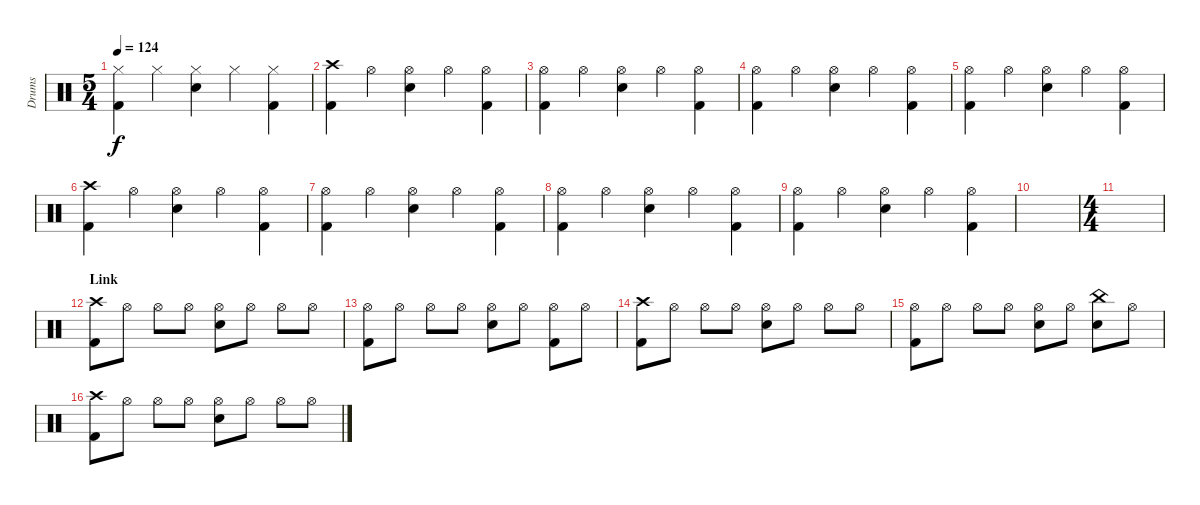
\track ("Drums" "Drums") {instrument percussion}
\staff {score}
\articulation defaults
\ts (5 4)
\tempo 124
\clef neutral
\ks c
("Hi-Hat (closed)" "Kick (hit) 2").4{dy f} "Hi-Hat (closed)".4 ("Hi-Hat (closed)" "Electric Snare (hit)").4 "Hi-Hat (closed)".4 ("Hi-Hat (closed)" "Kick (hit) 2").4 |
\section ("" "")
("Crash high (hit)" "Kick (hit) 2").4 "Hi-Hat (open)".4 ("Hi-Hat (open)" "Electric Snare (hit)").4 "Hi-Hat (open)".4 ("Hi-Hat (open)" "Kick (hit) 2").4 |
("Hi-Hat (open)" "Kick (hit) 2").4 "Hi-Hat (open)".4 ("Hi-Hat (open)" "Electric Snare (hit)").4 "Hi-Hat (open)".4 ("Hi-Hat (open)" "Kick (hit) 2").4 |
("Hi-Hat (open)" "Kick (hit) 2").4 "Hi-Hat (open)".4 ("Hi-Hat (open)" "Electric Snare (hit)").4 "Hi-Hat (open)".4 ("Hi-Hat (open)" "Kick (hit) 2").4 |
("Hi-Hat (open)" "Kick (hit) 2").4 "Hi-Hat (open)".4 ("Hi-Hat (open)" "Electric Snare (hit)").4 "Hi-Hat (open)".4 ("Hi-Hat (open)" "Kick (hit) 2").4 |
("Crash high (hit)" "Kick (hit) 2").4 "Hi-Hat (open)".4 ("Hi-Hat (open)" "Electric Snare (hit)").4 "Hi-Hat (open)".4 ("Hi-Hat (open)" "Kick (hit) 2").4 |
("Hi-Hat (open)" "Kick (hit) 2").4 "Hi-Hat (open)".4 ("Hi-Hat (open)" "Electric Snare (hit)").4 "Hi-Hat (open)".4 ("Hi-Hat (open)" "Kick (hit) 2").4 |
("Hi-Hat (open)" "Kick (hit) 2").4 "Hi-Hat (open)".4 ("Hi-Hat (open)" "Electric Snare (hit)").4 "Hi-Hat (open)".4 ("Hi-Hat (open)" "Kick (hit) 2").4 |
("Hi-Hat (open)" "Kick (hit) 2").4 "Hi-Hat (open)".4 ("Hi-Hat (open)" "Electric Snare (hit)").4 "Hi-Hat (open)".4 ("Hi-Hat (open)" "Kick (hit) 2").4 |
\section ("" "")
|
\ts (4 4)
|
\section ("" "Link")
("Crash high (hit)" "Kick (hit) 2").8 "Hi-Hat (open)".8 "Hi-Hat (open)".8 "Hi-Hat (open)".8 ("Hi-Hat (open)" "Electric Snare (hit)").8 "Hi-Hat (open)".8 "Hi-Hat (open)".8 "Hi-Hat (open)".8 |
("Hi-Hat (open)" "Kick (hit) 2").8 "Hi-Hat (open)".8 "Hi-Hat (open)".8 "Hi-Hat (open)".8 ("Hi-Hat (open)" "Electric Snare (hit)").8 "Hi-Hat (open)".8 ("Hi-Hat (open)" "Kick (hit) 2").8 "Hi-Hat (open)".8 |
("Crash high (hit)" "Kick (hit) 2").8 "Hi-Hat (open)".8 "Hi-Hat (open)".8 "Hi-Hat (open)".8 ("Hi-Hat (open)" "Electric Snare (hit)").8 "Hi-Hat (open)".8 "Hi-Hat (open)".8 "Hi-Hat (open)".8 |
("Hi-Hat (open)" "Kick (hit) 2").8 "Hi-Hat (open)".8 "Hi-Hat (open)".8 "Hi-Hat (open)".8 ("Hi-Hat (open)" "Electric Snare (hit)").8 "Hi-Hat (open)".8 ("China (hit)" "Electric Snare (hit)").8 "Hi-Hat (open)".8 |
("Crash high (hit)" "Kick (hit) 2").8 "Hi-Hat (open)".8 "Hi-Hat (open)".8 "Hi-Hat (open)".8 ("Hi-Hat (open)" "Electric Snare (hit)").8 "Hi-Hat (open)".8 "Hi-Hat (open)".8 "Hi-Hat (open)".8
